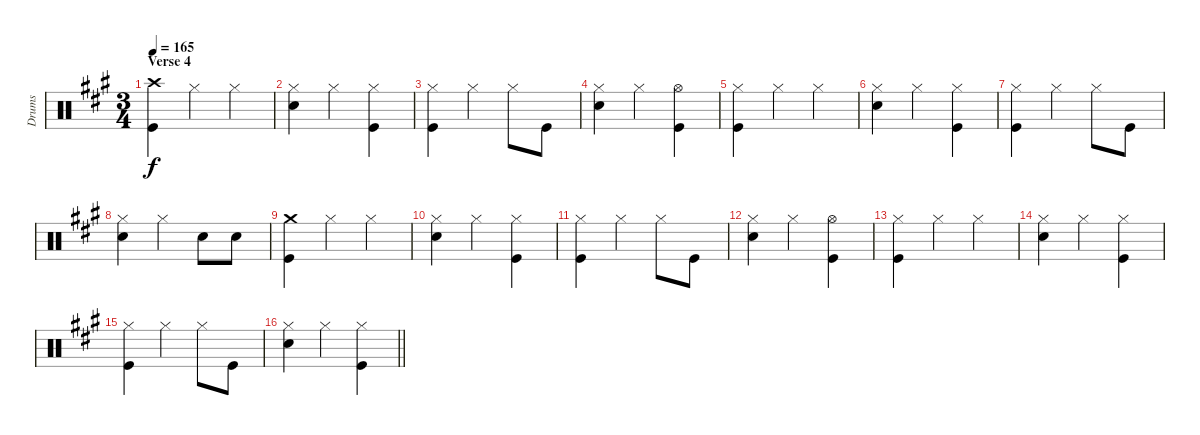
\track ("Drums" "Drums") {instrument percussion}
\staff {score}
\articulation defaults
\ts (3 4)
\section ("" "Verse 4")
\tempo 165
\clef neutral
\ks a
("Crash high (hit)" "Kick (hit)").4{dy f} "Hi-Hat (closed)".4 "Hi-Hat (closed)".4 |
("Hi-Hat (closed)" "Snare (hit) 2").4 "Hi-Hat (closed)".4 ("Hi-Hat (closed)" "Kick (hit)").4 |
("Hi-Hat (closed)" "Kick (hit)").4 "Hi-Hat (closed)".4 "Hi-Hat (closed)".8 "Kick (hit)".8 |
("Hi-Hat (closed)" "Snare (hit) 2").4 "Hi-Hat (closed)".4 ("Hi-Hat (open)" "Kick (hit)").4 |
("Hi-Hat (closed)" "Kick (hit)").4 "Hi-Hat (closed)".4 "Hi-Hat (closed)".4 |
("Hi-Hat (closed)" "Snare (hit) 2").4 "Hi-Hat (closed)".4 ("Hi-Hat (closed)" "Kick (hit)").4 |
("Hi-Hat (closed)" "Kick (hit)").4 "Hi-Hat (closed)".4 "Hi-Hat (closed)".8 "Kick (hit)".8 |
("Hi-Hat (closed)" "Snare (hit) 2").4 "Hi-Hat (closed)".4 "Snare (hit) 2".8 "Snare (hit) 2".8 |
("Crash medium (hit)" "Kick (hit)").4 "Hi-Hat (closed)".4 "Hi-Hat (closed)".4 |
("Hi-Hat (closed)" "Snare (hit) 2").4 "Hi-Hat (closed)".4 ("Hi-Hat (closed)" "Kick (hit)").4 |
("Hi-Hat (closed)" "Kick (hit)").4 "Hi-Hat (closed)".4 "Hi-Hat (closed)".8 "Kick (hit)".8 |
("Hi-Hat (closed)" "Snare (hit) 2").4 "Hi-Hat (closed)".4 ("Hi-Hat (open)" "Kick (hit)").4 |
("Hi-Hat (closed)" "Kick (hit)").4 "Hi-Hat (closed)".4 "Hi-Hat (closed)".4 |
("Hi-Hat (closed)" "Snare (hit) 2").4 "Hi-Hat (closed)".4 ("Hi-Hat (closed)" "Kick (hit)").4 |
("Hi-Hat (closed)" "Kick (hit)").4 "Hi-Hat (closed)".4 "Hi-Hat (closed)".8 "Kick (hit)".8 |
\barLineRight lightlight
("Hi-Hat (closed)" "Snare (hit) 2").4 "Hi-Hat (closed)".4 ("Hi-Hat (closed)" "Kick (hit)").4
